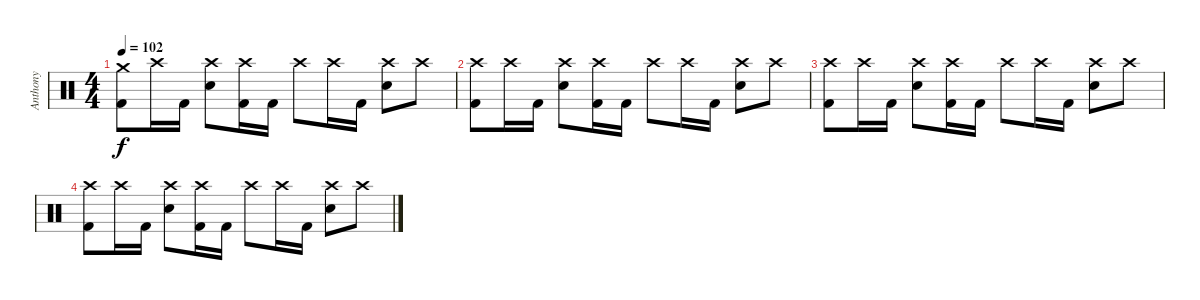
\track ("Anthony" "Anthony") {instrument percussion}
\staff {score}
\articulation defaults
\ts (4 4)
\tempo 102
\clef neutral
\ks c
("Crash medium (hit)" "Kick (hit) 2").8{dy f volume 0} "Crash high (hit)".16 "Kick (hit) 2".16 ("Crash high (hit)" "Electric Snare (hit)").8 ("Crash high (hit)" "Kick (hit) 2").16 "Kick (hit) 2".16 "Crash high (hit)".8 "Crash high (hit)".16 "Kick (hit) 2".16 ("Crash high (hit)" "Electric Snare (hit)").8 "Crash high (hit)".8 |
("Crash high (hit)" "Kick (hit) 2").8 "Crash high (hit)".16 "Kick (hit) 2".16 ("Crash high (hit)" "Electric Snare (hit)").8 ("Crash high (hit)" "Kick (hit) 2").16 "Kick (hit) 2".16 "Crash high (hit)".8 "Crash high (hit)".16 "Kick (hit) 2".16 ("Crash high (hit)" "Electric Snare (hit)").8 "Crash high (hit)".8 |
("Crash high (hit)" "Kick (hit) 2").8 "Crash high (hit)".16 "Kick (hit) 2".16 ("Crash high (hit)" "Electric Snare (hit)").8 ("Crash high (hit)" "Kick (hit) 2").16 "Kick (hit) 2".16 "Crash high (hit)".8 "Crash high (hit)".16 "Kick (hit) 2".16 ("Crash high (hit)" "Electric Snare (hit)").8 "Crash high (hit)".8 |
("Crash high (hit)" "Kick (hit) 2").8 "Crash high (hit)".16 "Kick (hit) 2".16 ("Crash high (hit)" "Electric Snare (hit)").8 ("Crash high (hit)" "Kick (hit) 2").16 "Kick (hit) 2".16 "Crash high (hit)".8 "Crash high (hit)".16 "Kick (hit) 2".16 ("Crash high (hit)" "Electric Snare (hit)").8 "Crash high (hit)".8
